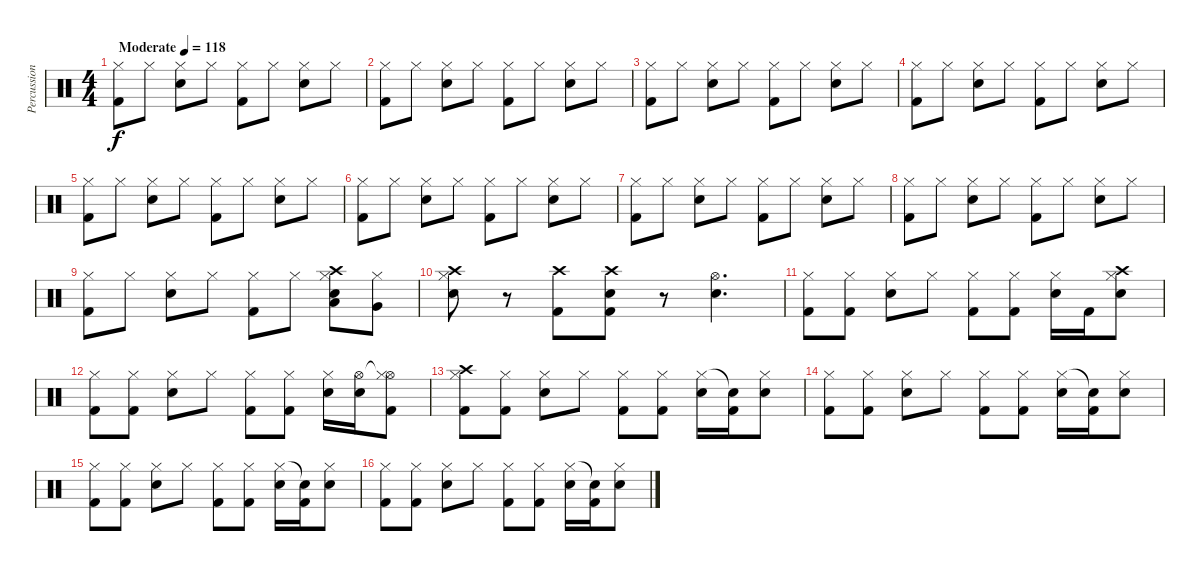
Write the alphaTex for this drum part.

\track ("Percussion" "Percussion") {instrument percussion}
\staff {score}
\articulation defaults
\ts (4 4)
\tempo (118 "Moderate")
\clef neutral
\ks c
("Kick (hit) 2" "Hi-Hat (closed)").8{dy f} "Hi-Hat (closed)".8 ("Snare (hit) 2" "Hi-Hat (closed)").8 "Hi-Hat (closed)".8 ("Kick (hit) 2" "Hi-Hat (closed)").8 "Hi-Hat (closed)".8 ("Snare (hit) 2" "Hi-Hat (closed)").8 "Hi-Hat (closed)".8 |
("Kick (hit) 2" "Hi-Hat (closed)").8 "Hi-Hat (closed)".8 ("Snare (hit) 2" "Hi-Hat (closed)").8 "Hi-Hat (closed)".8 ("Kick (hit) 2" "Hi-Hat (closed)").8 "Hi-Hat (closed)".8 ("Snare (hit) 2" "Hi-Hat (closed)").8 "Hi-Hat (closed)".8 |
("Kick (hit) 2" "Hi-Hat (closed)").8 "Hi-Hat (closed)".8 ("Snare (hit) 2" "Hi-Hat (closed)").8 "Hi-Hat (closed)".8 ("Kick (hit) 2" "Hi-Hat (closed)").8 "Hi-Hat (closed)".8 ("Snare (hit) 2" "Hi-Hat (closed)").8 "Hi-Hat (closed)".8 |
("Kick (hit) 2" "Hi-Hat (closed)").8 "Hi-Hat (closed)".8 ("Snare (hit) 2" "Hi-Hat (closed)").8 "Hi-Hat (closed)".8 ("Kick (hit) 2" "Hi-Hat (closed)").8 "Hi-Hat (closed)".8 ("Snare (hit) 2" "Hi-Hat (closed)").8 "Hi-Hat (closed)".8 |
("Kick (hit) 2" "Hi-Hat (closed)").8 "Hi-Hat (closed)".8 ("Snare (hit) 2" "Hi-Hat (closed)").8 "Hi-Hat (closed)".8 ("Kick (hit) 2" "Hi-Hat (closed)").8 "Hi-Hat (closed)".8 ("Snare (hit) 2" "Hi-Hat (closed)").8 "Hi-Hat (closed)".8 |
("Kick (hit) 2" "Hi-Hat (closed)").8 "Hi-Hat (closed)".8 ("Snare (hit) 2" "Hi-Hat (closed)").8 "Hi-Hat (closed)".8 ("Kick (hit) 2" "Hi-Hat (closed)").8 "Hi-Hat (closed)".8 ("Snare (hit) 2" "Hi-Hat (closed)").8 "Hi-Hat (closed)".8 |
("Kick (hit) 2" "Hi-Hat (closed)").8 "Hi-Hat (closed)".8 ("Snare (hit) 2" "Hi-Hat (closed)").8 "Hi-Hat (closed)".8 ("Kick (hit) 2" "Hi-Hat (closed)").8 "Hi-Hat (closed)".8 ("Snare (hit) 2" "Hi-Hat (closed)").8 "Hi-Hat (closed)".8 |
("Kick (hit) 2" "Hi-Hat (closed)").8 "Hi-Hat (closed)".8 ("Snare (hit) 2" "Hi-Hat (closed)").8 "Hi-Hat (closed)".8 ("Kick (hit) 2" "Hi-Hat (closed)").8 "Hi-Hat (closed)".8 ("Snare (hit) 2" "Hi-Hat (closed)").8 "Hi-Hat (closed)".8 |
("Kick (hit) 2" "Hi-Hat (closed)").8 "Hi-Hat (closed)".8 ("Snare (hit) 2" "Hi-Hat (closed)").8 "Hi-Hat (closed)".8 ("Kick (hit) 2" "Hi-Hat (closed)").8 "Hi-Hat (closed)".8 ("Crash high (hit)" "Low Tom (hit)" "Snare (hit) 2" "Hi-Hat (closed)").8 ("Very Low Tom (hit)" "Hi-Hat (closed)").8 |
("Crash high (hit)" "Snare (hit) 2" "Hi-Hat (closed)").8 r.8 ("Crash high (hit)" "Kick (hit) 2").8 ("Crash high (hit)" "Snare (hit) 2" "Kick (hit) 2").8 r.8 ("Hi-Hat (open)" "Snare (hit) 2").4{d} |
("Kick (hit) 2" "Hi-Hat (closed)").8 ("Kick (hit) 2" "Hi-Hat (closed)").8 ("Snare (hit) 2" "Hi-Hat (closed)").8 "Hi-Hat (closed)".8 ("Kick (hit) 2" "Hi-Hat (closed)").8 ("Kick (hit) 2" "Hi-Hat (closed)").8 ("Snare (hit) 2" "Hi-Hat (closed)").16 "Kick (hit) 2".16 ("Crash high (hit)" "Snare (hit) 2" "Hi-Hat (closed)").8 |
("Kick (hit) 2" "Hi-Hat (closed)").8 ("Kick (hit) 2" "Hi-Hat (closed)").8 ("Snare (hit) 2" "Hi-Hat (closed)").8 "Hi-Hat (closed)".8 ("Kick (hit) 2" "Hi-Hat (closed)").8 ("Kick (hit) 2" "Hi-Hat (closed)").8 ("Snare (hit) 2" "Hi-Hat (closed)").16 ("Hi-Hat (open)" "Snare (hit) 2").16 ("Hi-Hat (open)"{t} "Kick (hit) 2" "Hi-Hat (closed)").8 |
("Crash high (hit)" "Kick (hit) 2" "Hi-Hat (closed)").8 ("Kick (hit) 2" "Hi-Hat (closed)").8 ("Snare (hit) 2" "Hi-Hat (closed)").8 "Hi-Hat (closed)".8 ("Kick (hit) 2" "Hi-Hat (closed)").8 ("Kick (hit) 2" "Hi-Hat (closed)").8 ("Snare (hit) 2" "Hi-Hat (closed)").16 ("Kick (hit) 2" "Snare (hit)"{t}).16 ("Snare (hit) 2" "Hi-Hat (closed)").8 |
("Kick (hit) 2" "Hi-Hat (closed)").8 ("Kick (hit) 2" "Hi-Hat (closed)").8 ("Snare (hit) 2" "Hi-Hat (closed)").8 "Hi-Hat (closed)".8 ("Kick (hit) 2" "Hi-Hat (closed)").8 ("Kick (hit) 2" "Hi-Hat (closed)").8 ("Snare (hit) 2" "Hi-Hat (closed)").16 ("Kick (hit) 2" "Snare (hit)"{t}).16 ("Snare (hit) 2" "Hi-Hat (closed)").8 |
("Kick (hit) 2" "Hi-Hat (closed)").8 ("Kick (hit) 2" "Hi-Hat (closed)").8 ("Snare (hit) 2" "Hi-Hat (closed)").8 "Hi-Hat (closed)".8 ("Kick (hit) 2" "Hi-Hat (closed)").8 ("Kick (hit) 2" "Hi-Hat (closed)").8 ("Snare (hit) 2" "Hi-Hat (closed)").16 ("Kick (hit) 2" "Snare (hit)"{t}).16 ("Snare (hit) 2" "Hi-Hat (closed)").8 |
("Kick (hit) 2" "Hi-Hat (closed)").8 ("Kick (hit) 2" "Hi-Hat (closed)").8 ("Snare (hit) 2" "Hi-Hat (closed)").8 "Hi-Hat (closed)".8 ("Kick (hit) 2" "Hi-Hat (closed)").8 ("Kick (hit) 2" "Hi-Hat (closed)").8 ("Snare (hit) 2" "Hi-Hat (closed)").16 ("Kick (hit) 2" "Snare (hit)"{t}).16 ("Snare (hit) 2" "Hi-Hat (closed)").8
